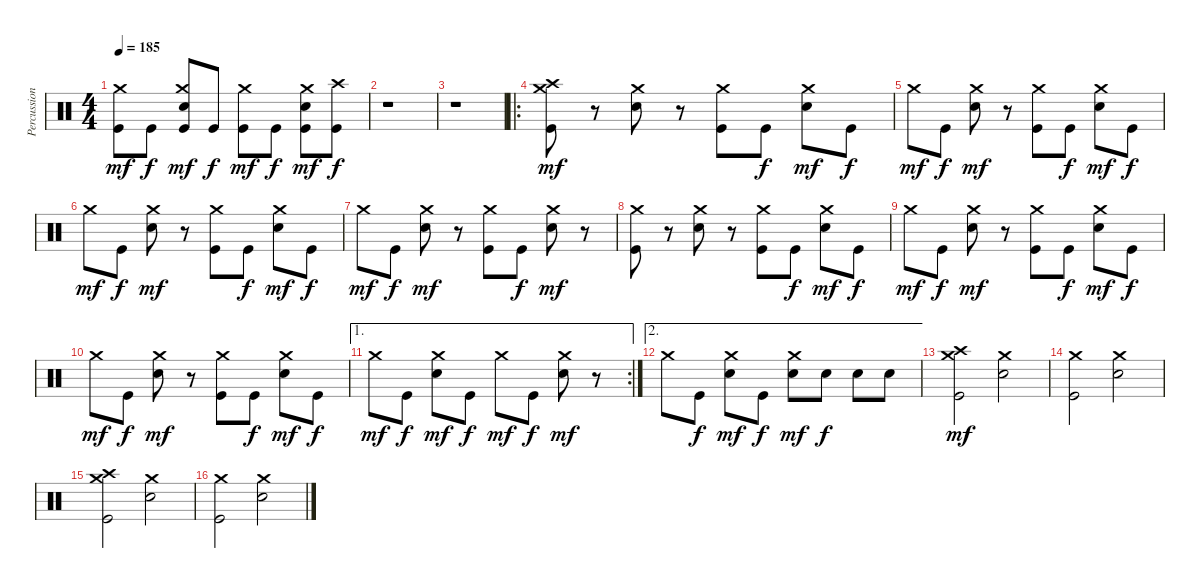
\track ("Percussions" "Percussion") {instrument percussion}
\staff {score}
\articulation defaults
\ts (4 4)
\tempo 185
\clef neutral
\ks c
("Kick (hit)" "Crash medium (hit)").8{dy mf} "Kick (hit)".8{dy f} ("Kick (hit)" "Electric Snare (hit)" "Crash medium (hit)").8{dy mf} "Kick (hit)".8{dy f} ("Kick (hit)" "Crash medium (hit)").8{dy mf} "Kick (hit)".8{dy f} ("Kick (hit)" "Electric Snare (hit)" "Crash medium (hit)").8{dy mf} ("Kick (hit)" "Crash high (hit)").8{dy f} |
r.1 |
r.1 |
\ro
("Kick (hit)" "Crash medium (hit)" "Crash high (hit)").8{dy mf} r.8 ("Electric Snare (hit)" "Crash medium (hit)").8 r.8 ("Kick (hit)" "Crash medium (hit)").8 "Kick (hit)".8{dy f} ("Electric Snare (hit)" "Crash medium (hit)").8{dy mf} "Kick (hit)".8{dy f} |
"Crash medium (hit)".8{dy mf} "Kick (hit)".8{dy f} ("Electric Snare (hit)" "Crash medium (hit)").8{dy mf} r.8 ("Kick (hit)" "Crash medium (hit)").8 "Kick (hit)".8{dy f} ("Electric Snare (hit)" "Crash medium (hit)").8{dy mf} "Kick (hit)".8{dy f} |
"Crash medium (hit)".8{dy mf} "Kick (hit)".8{dy f} ("Electric Snare (hit)" "Crash medium (hit)").8{dy mf} r.8 ("Kick (hit)" "Crash medium (hit)").8 "Kick (hit)".8{dy f} ("Electric Snare (hit)" "Crash medium (hit)").8{dy mf} "Kick (hit)".8{dy f} |
"Crash medium (hit)".8{dy mf} "Kick (hit)".8{dy f} ("Electric Snare (hit)" "Crash medium (hit)").8{dy mf} r.8 ("Kick (hit)" "Crash medium (hit)").8 "Kick (hit)".8{dy f} ("Electric Snare (hit)" "Crash medium (hit)").8{dy mf} r.8 |
("Kick (hit)" "Crash medium (hit)").8 r.8 ("Electric Snare (hit)" "Crash medium (hit)").8 r.8 ("Kick (hit)" "Crash medium (hit)").8 "Kick (hit)".8{dy f} ("Electric Snare (hit)" "Crash medium (hit)").8{dy mf} "Kick (hit)".8{dy f} |
"Crash medium (hit)".8{dy mf} "Kick (hit)".8{dy f} ("Electric Snare (hit)" "Crash medium (hit)").8{dy mf} r.8 ("Kick (hit)" "Crash medium (hit)").8 "Kick (hit)".8{dy f} ("Electric Snare (hit)" "Crash medium (hit)").8{dy mf} "Kick (hit)".8{dy f} |
"Crash medium (hit)".8{dy mf} "Kick (hit)".8{dy f} ("Electric Snare (hit)" "Crash medium (hit)").8{dy mf} r.8 ("Kick (hit)" "Crash medium (hit)").8 "Kick (hit)".8{dy f} ("Electric Snare (hit)" "Crash medium (hit)").8{dy mf} "Kick (hit)".8{dy f} |
\ae 1
\rc 2 "Crash medium (hit)".8{dy mf} "Kick (hit)".8{dy f}
("Electric Snare (hit)" "Crash medium (hit)").8{dy mf} "Kick (hit)".8{dy f} "Crash medium (hit)".8{dy mf} "Kick (hit)".8{dy f} ("Electric Snare (hit)" "Crash medium (hit)").8{dy mf} r.8 |
\ae 2 "Crash medium (hit)".8 "Kick (hit)".8{dy f}
("Electric Snare (hit)" "Crash medium (hit)").8{dy mf} "Kick (hit)".8{dy f} ("Electric Snare (hit)" "Crash medium (hit)").8{dy mf} "Electric Snare (hit)".8{dy f} "Electric Snare (hit)".8 "Electric Snare (hit)".8 |
("Kick (hit)" "Crash medium (hit)" "Crash high (hit)").2{dy mf} ("Electric Snare (hit)" "Crash medium (hit)").2 |
("Kick (hit)" "Crash medium (hit)").2 ("Electric Snare (hit)" "Crash medium (hit)").2 |
("Kick (hit)" "Crash medium (hit)" "Crash high (hit)").2 ("Electric Snare (hit)" "Crash medium (hit)").2 |
("Kick (hit)" "Crash medium (hit)").2 ("Electric Snare (hit)" "Crash medium (hit)").2
